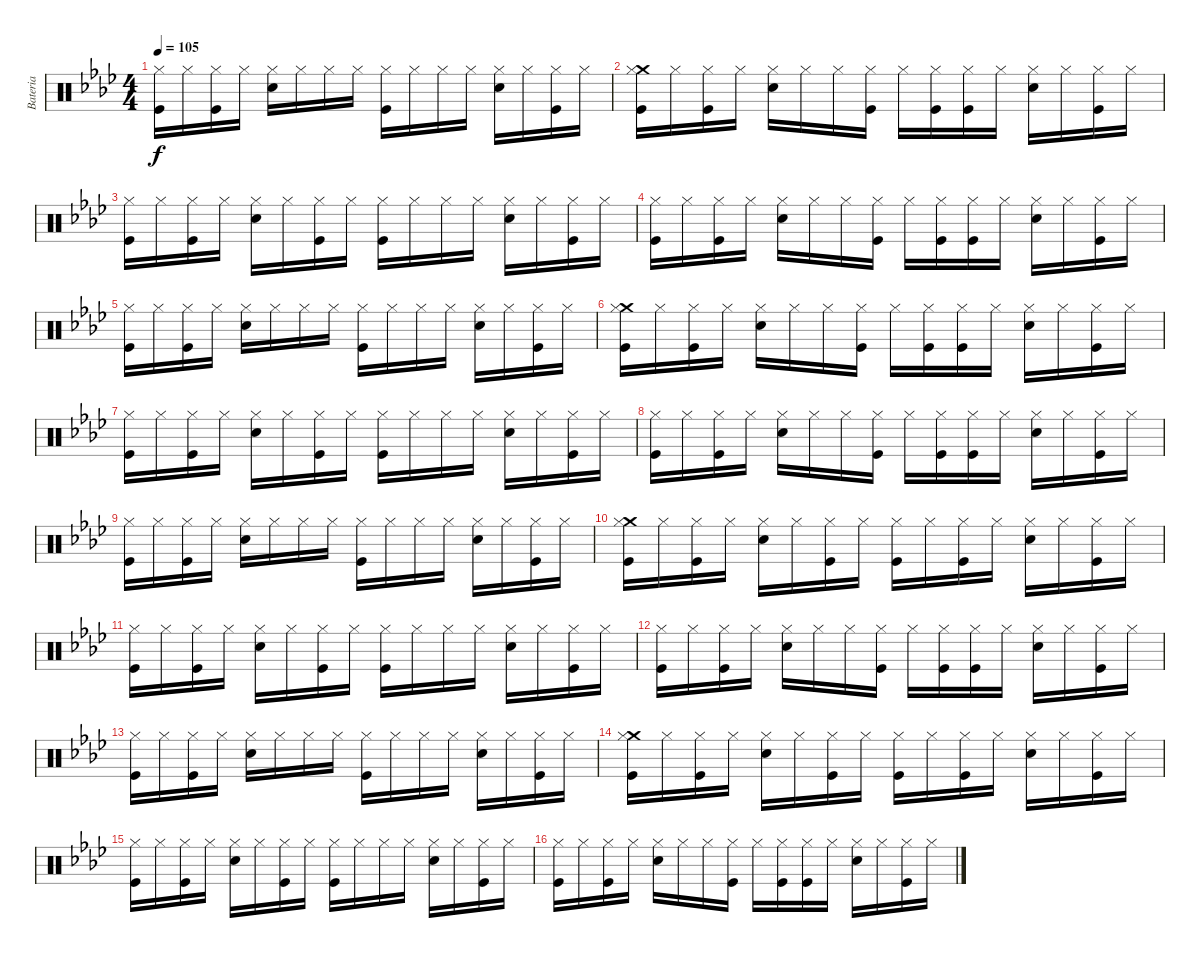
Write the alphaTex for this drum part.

\track ("Bateria" "Bateria") {instrument percussion}
\staff {score}
\articulation defaults
\ts (4 4)
\tempo 105
\clef neutral
\ks fminor
("Kick (hit)" "Hi-Hat (closed)").16{dy f} "Hi-Hat (closed)".16 ("Kick (hit)" "Hi-Hat (closed)").16 "Hi-Hat (closed)".16 ("Snare (hit) 2" "Hi-Hat (closed)").16 "Hi-Hat (closed)".16 "Hi-Hat (closed)".16 "Hi-Hat (closed)".16 ("Hi-Hat (closed)" "Kick (hit)").16 "Hi-Hat (closed)".16 "Hi-Hat (closed)".16 "Hi-Hat (closed)".16 ("Hi-Hat (closed)" "Snare (hit) 2").16 "Hi-Hat (closed)".16 ("Hi-Hat (closed)" "Kick (hit)").16 "Hi-Hat (closed)".16 |
("Crash medium (hit)" "Kick (hit)" "Hi-Hat (closed)").16 "Hi-Hat (closed)".16 ("Kick (hit)" "Hi-Hat (closed)").16 "Hi-Hat (closed)".16 ("Snare (hit) 2" "Hi-Hat (closed)").16 "Hi-Hat (closed)".16 "Hi-Hat (closed)".16 ("Hi-Hat (closed)" "Kick (hit)").16 "Hi-Hat (closed)".16 ("Kick (hit)" "Hi-Hat (closed)").16 ("Hi-Hat (closed)" "Kick (hit)").16 "Hi-Hat (closed)".16 ("Hi-Hat (closed)" "Snare (hit) 2").16 "Hi-Hat (closed)".16 ("Hi-Hat (closed)" "Kick (hit)").16 "Hi-Hat (closed)".16 |
("Kick (hit)" "Hi-Hat (closed)").16 "Hi-Hat (closed)".16 ("Kick (hit)" "Hi-Hat (closed)").16 "Hi-Hat (closed)".16 ("Snare (hit) 2" "Hi-Hat (closed)").16 "Hi-Hat (closed)".16 ("Hi-Hat (closed)" "Kick (hit)").16 "Hi-Hat (closed)".16 ("Hi-Hat (closed)" "Kick (hit)").16 "Hi-Hat (closed)".16 "Hi-Hat (closed)".16 "Hi-Hat (closed)".16 ("Hi-Hat (closed)" "Snare (hit) 2").16 "Hi-Hat (closed)".16 ("Hi-Hat (closed)" "Kick (hit)").16 "Hi-Hat (closed)".16 |
("Kick (hit)" "Hi-Hat (closed)").16 "Hi-Hat (closed)".16 ("Kick (hit)" "Hi-Hat (closed)").16 "Hi-Hat (closed)".16 ("Snare (hit) 2" "Hi-Hat (closed)").16 "Hi-Hat (closed)".16 "Hi-Hat (closed)".16 ("Hi-Hat (closed)" "Kick (hit)").16 "Hi-Hat (closed)".16 ("Kick (hit)" "Hi-Hat (closed)").16 ("Hi-Hat (closed)" "Kick (hit)").16 "Hi-Hat (closed)".16 ("Hi-Hat (closed)" "Snare (hit) 2").16 "Hi-Hat (closed)".16 ("Hi-Hat (closed)" "Kick (hit)").16 "Hi-Hat (closed)".16 |
("Kick (hit)" "Hi-Hat (closed)").16 "Hi-Hat (closed)".16 ("Kick (hit)" "Hi-Hat (closed)").16 "Hi-Hat (closed)".16 ("Snare (hit) 2" "Hi-Hat (closed)").16 "Hi-Hat (closed)".16 "Hi-Hat (closed)".16 "Hi-Hat (closed)".16 ("Hi-Hat (closed)" "Kick (hit)").16 "Hi-Hat (closed)".16 "Hi-Hat (closed)".16 "Hi-Hat (closed)".16 ("Hi-Hat (closed)" "Snare (hit) 2").16 "Hi-Hat (closed)".16 ("Hi-Hat (closed)" "Kick (hit)").16 "Hi-Hat (closed)".16 |
("Crash medium (hit)" "Kick (hit)" "Hi-Hat (closed)").16 "Hi-Hat (closed)".16 ("Kick (hit)" "Hi-Hat (closed)").16 "Hi-Hat (closed)".16 ("Snare (hit) 2" "Hi-Hat (closed)").16 "Hi-Hat (closed)".16 "Hi-Hat (closed)".16 ("Hi-Hat (closed)" "Kick (hit)").16 "Hi-Hat (closed)".16 ("Kick (hit)" "Hi-Hat (closed)").16 ("Hi-Hat (closed)" "Kick (hit)").16 "Hi-Hat (closed)".16 ("Hi-Hat (closed)" "Snare (hit) 2").16 "Hi-Hat (closed)".16 ("Hi-Hat (closed)" "Kick (hit)").16 "Hi-Hat (closed)".16 |
("Kick (hit)" "Hi-Hat (closed)").16 "Hi-Hat (closed)".16 ("Kick (hit)" "Hi-Hat (closed)").16 "Hi-Hat (closed)".16 ("Snare (hit) 2" "Hi-Hat (closed)").16 "Hi-Hat (closed)".16 ("Hi-Hat (closed)" "Kick (hit)").16 "Hi-Hat (closed)".16 ("Hi-Hat (closed)" "Kick (hit)").16 "Hi-Hat (closed)".16 "Hi-Hat (closed)".16 "Hi-Hat (closed)".16 ("Hi-Hat (closed)" "Snare (hit) 2").16 "Hi-Hat (closed)".16 ("Hi-Hat (closed)" "Kick (hit)").16 "Hi-Hat (closed)".16 |
("Kick (hit)" "Hi-Hat (closed)").16 "Hi-Hat (closed)".16 ("Kick (hit)" "Hi-Hat (closed)").16 "Hi-Hat (closed)".16 ("Snare (hit) 2" "Hi-Hat (closed)").16 "Hi-Hat (closed)".16 "Hi-Hat (closed)".16 ("Hi-Hat (closed)" "Kick (hit)").16 "Hi-Hat (closed)".16 ("Kick (hit)" "Hi-Hat (closed)").16 ("Hi-Hat (closed)" "Kick (hit)").16 "Hi-Hat (closed)".16 ("Hi-Hat (closed)" "Snare (hit) 2").16 "Hi-Hat (closed)".16 ("Hi-Hat (closed)" "Kick (hit)").16 "Hi-Hat (closed)".16 |
("Kick (hit)" "Hi-Hat (closed)").16 "Hi-Hat (closed)".16 ("Kick (hit)" "Hi-Hat (closed)").16 "Hi-Hat (closed)".16 ("Snare (hit) 2" "Hi-Hat (closed)").16 "Hi-Hat (closed)".16 "Hi-Hat (closed)".16 "Hi-Hat (closed)".16 ("Hi-Hat (closed)" "Kick (hit)").16 "Hi-Hat (closed)".16 "Hi-Hat (closed)".16 "Hi-Hat (closed)".16 ("Hi-Hat (closed)" "Snare (hit) 2").16 "Hi-Hat (closed)".16 ("Hi-Hat (closed)" "Kick (hit)").16 "Hi-Hat (closed)".16 |
("Crash medium (hit)" "Kick (hit)" "Hi-Hat (closed)").16 "Hi-Hat (closed)".16 ("Kick (hit)" "Hi-Hat (closed)").16 "Hi-Hat (closed)".16 ("Snare (hit) 2" "Hi-Hat (closed)").16 "Hi-Hat (closed)".16 ("Hi-Hat (closed)" "Kick (hit)").16 "Hi-Hat (closed)".16 ("Hi-Hat (closed)" "Kick (hit)").16 "Hi-Hat (closed)".16 ("Hi-Hat (closed)" "Kick (hit)").16 "Hi-Hat (closed)".16 ("Hi-Hat (closed)" "Snare (hit) 2").16 "Hi-Hat (closed)".16 ("Hi-Hat (closed)" "Kick (hit)").16 "Hi-Hat (closed)".16 |
("Kick (hit)" "Hi-Hat (closed)").16 "Hi-Hat (closed)".16 ("Kick (hit)" "Hi-Hat (closed)").16 "Hi-Hat (closed)".16 ("Snare (hit) 2" "Hi-Hat (closed)").16 "Hi-Hat (closed)".16 ("Hi-Hat (closed)" "Kick (hit)").16 "Hi-Hat (closed)".16 ("Hi-Hat (closed)" "Kick (hit)").16 "Hi-Hat (closed)".16 "Hi-Hat (closed)".16 "Hi-Hat (closed)".16 ("Hi-Hat (closed)" "Snare (hit) 2").16 "Hi-Hat (closed)".16 ("Hi-Hat (closed)" "Kick (hit)").16 "Hi-Hat (closed)".16 |
("Kick (hit)" "Hi-Hat (closed)").16 "Hi-Hat (closed)".16 ("Kick (hit)" "Hi-Hat (closed)").16 "Hi-Hat (closed)".16 ("Snare (hit) 2" "Hi-Hat (closed)").16 "Hi-Hat (closed)".16 "Hi-Hat (closed)".16 ("Hi-Hat (closed)" "Kick (hit)").16 "Hi-Hat (closed)".16 ("Kick (hit)" "Hi-Hat (closed)").16 ("Hi-Hat (closed)" "Kick (hit)").16 "Hi-Hat (closed)".16 ("Hi-Hat (closed)" "Snare (hit) 2").16 "Hi-Hat (closed)".16 ("Hi-Hat (closed)" "Kick (hit)").16 "Hi-Hat (closed)".16 |
("Kick (hit)" "Hi-Hat (closed)").16 "Hi-Hat (closed)".16 ("Kick (hit)" "Hi-Hat (closed)").16 "Hi-Hat (closed)".16 ("Snare (hit) 2" "Hi-Hat (closed)").16 "Hi-Hat (closed)".16 "Hi-Hat (closed)".16 "Hi-Hat (closed)".16 ("Hi-Hat (closed)" "Kick (hit)").16 "Hi-Hat (closed)".16 "Hi-Hat (closed)".16 "Hi-Hat (closed)".16 ("Hi-Hat (closed)" "Snare (hit) 2").16 "Hi-Hat (closed)".16 ("Hi-Hat (closed)" "Kick (hit)").16 "Hi-Hat (closed)".16 |
("Crash medium (hit)" "Kick (hit)" "Hi-Hat (closed)").16 "Hi-Hat (closed)".16 ("Kick (hit)" "Hi-Hat (closed)").16 "Hi-Hat (closed)".16 ("Snare (hit) 2" "Hi-Hat (closed)").16 "Hi-Hat (closed)".16 ("Hi-Hat (closed)" "Kick (hit)").16 "Hi-Hat (closed)".16 ("Hi-Hat (closed)" "Kick (hit)").16 "Hi-Hat (closed)".16 ("Hi-Hat (closed)" "Kick (hit)").16 "Hi-Hat (closed)".16 ("Hi-Hat (closed)" "Snare (hit) 2").16 "Hi-Hat (closed)".16 ("Hi-Hat (closed)" "Kick (hit)").16 "Hi-Hat (closed)".16 |
("Kick (hit)" "Hi-Hat (closed)").16 "Hi-Hat (closed)".16 ("Kick (hit)" "Hi-Hat (closed)").16 "Hi-Hat (closed)".16 ("Snare (hit) 2" "Hi-Hat (closed)").16 "Hi-Hat (closed)".16 ("Hi-Hat (closed)" "Kick (hit)").16 "Hi-Hat (closed)".16 ("Hi-Hat (closed)" "Kick (hit)").16 "Hi-Hat (closed)".16 "Hi-Hat (closed)".16 "Hi-Hat (closed)".16 ("Hi-Hat (closed)" "Snare (hit) 2").16 "Hi-Hat (closed)".16 ("Hi-Hat (closed)" "Kick (hit)").16 "Hi-Hat (closed)".16 |
("Kick (hit)" "Hi-Hat (closed)").16 "Hi-Hat (closed)".16 ("Kick (hit)" "Hi-Hat (closed)").16 "Hi-Hat (closed)".16 ("Snare (hit) 2" "Hi-Hat (closed)").16 "Hi-Hat (closed)".16 "Hi-Hat (closed)".16 ("Hi-Hat (closed)" "Kick (hit)").16 "Hi-Hat (closed)".16 ("Kick (hit)" "Hi-Hat (closed)").16 ("Hi-Hat (closed)" "Kick (hit)").16 "Hi-Hat (closed)".16 ("Hi-Hat (closed)" "Snare (hit) 2").16 "Hi-Hat (closed)".16 ("Hi-Hat (closed)" "Kick (hit)").16 "Hi-Hat (closed)".16
